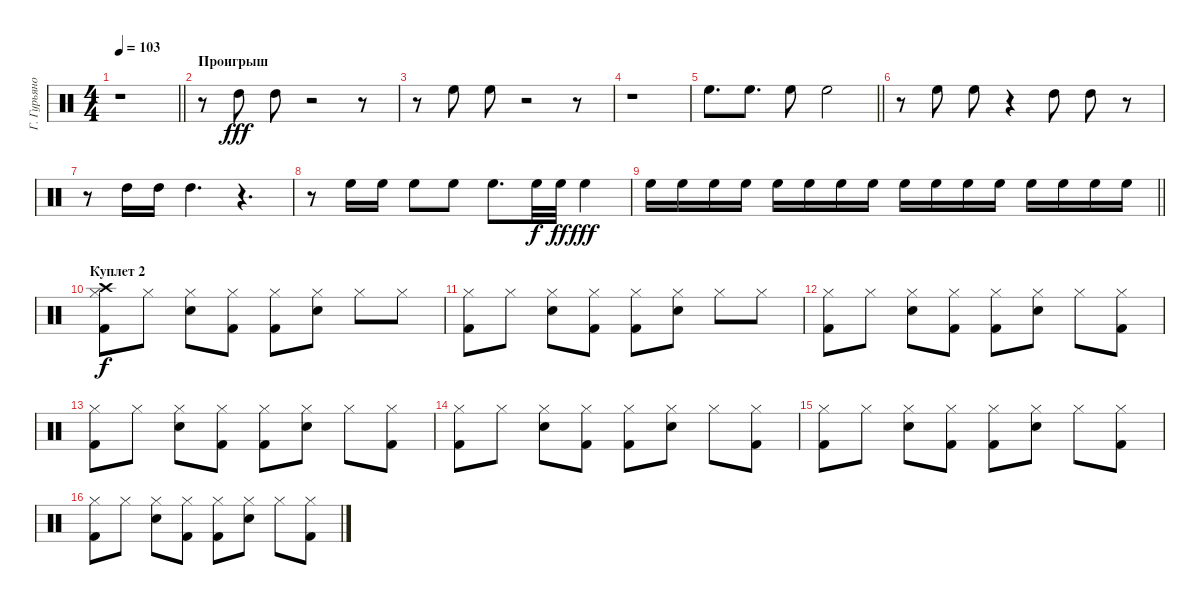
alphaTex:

\track ("Г. Гурьянов" "Г. Гурьяно") {instrument percussion}
\staff
\articulation defaults
\ts (4 4)
\tempo 103
\clef neutral
\barLineRight lightlight
\ks c
r.1{dy f} |
\section ("" "Проигрыш")
r.8 "High Tom (hit)".8{dy fff balance 15} "High Tom (hit)".8{balance 1} r.2 r.8 |
r.8 "High Floor Tom (hit)".8{balance 1} "High Floor Tom (hit)".8{balance 15} r.2 r.8 |
r.1 |
\barLineRight lightlight "High Floor Tom (hit)".8{d balance 15} "High Floor Tom (hit)".8{d balance 1} "High Floor Tom (hit)".8{balance 15} "High Floor Tom (hit)".2{balance 1}
|
r.8 "High Floor Tom (hit)".8{balance 1} "High Floor Tom (hit)".8{balance 15} r.4 "High Tom (hit)".8{balance 15} "High Tom (hit)".8{balance 1} r.8 |
r.8 "High Tom (hit)".16{balance 1} "High Tom (hit)".16 "High Tom (hit)".4{d balance 15} r.4{d} |
r.8 "High Floor Tom (hit)".16 "High Floor Tom (hit)".16 "High Floor Tom (hit)".8 "High Floor Tom (hit)".8 "High Floor Tom (hit)".8{d} "High Floor Tom (hit)".32{dy f} "High Floor Tom (hit)".32{dy ff} "High Floor Tom (hit)".4{dy fff} |
\barLineRight lightlight "High Floor Tom (hit)".16{balance 1} "High Floor Tom (hit)".16 "High Floor Tom (hit)".16 "High Floor Tom (hit)".16 "High Floor Tom (hit)".16{balance 14} "High Floor Tom (hit)".16 "High Floor Tom (hit)".16 "High Floor Tom (hit)".16 "High Floor Tom (hit)".16{balance 1} "High Floor Tom (hit)".16 "High Floor Tom (hit)".16 "High Floor Tom (hit)".16 "High Floor Tom (hit)".16{balance 14} "High Floor Tom (hit)".16 "High Floor Tom (hit)".16 "High Floor Tom (hit)".16
|
\section ("" "Куплет 2")
("Hi-Hat (closed)" "Crash high (hit)" "Kick (hit) 2").8{dy f balance 8} "Hi-Hat (closed)".8 ("Hi-Hat (closed)" "Snare (hit) 2").8 ("Hi-Hat (closed)" "Kick (hit) 2").8 ("Hi-Hat (closed)" "Kick (hit) 2").8 ("Hi-Hat (closed)" "Snare (hit) 2").8 "Hi-Hat (closed)".8 "Hi-Hat (closed)".8 |
("Hi-Hat (closed)" "Kick (hit) 2").8 "Hi-Hat (closed)".8 ("Hi-Hat (closed)" "Snare (hit) 2").8 ("Hi-Hat (closed)" "Kick (hit) 2").8 ("Hi-Hat (closed)" "Kick (hit) 2").8 ("Hi-Hat (closed)" "Snare (hit) 2").8 "Hi-Hat (closed)".8 "Hi-Hat (closed)".8 |
("Hi-Hat (closed)" "Kick (hit) 2").8 "Hi-Hat (closed)".8 ("Hi-Hat (closed)" "Snare (hit) 2").8 ("Hi-Hat (closed)" "Kick (hit) 2").8 ("Hi-Hat (closed)" "Kick (hit) 2").8 ("Hi-Hat (closed)" "Snare (hit) 2").8 "Hi-Hat (closed)".8 ("Hi-Hat (closed)" "Kick (hit) 2").8 |
("Hi-Hat (closed)" "Kick (hit) 2").8 "Hi-Hat (closed)".8 ("Hi-Hat (closed)" "Snare (hit) 2").8 ("Hi-Hat (closed)" "Kick (hit) 2").8 ("Hi-Hat (closed)" "Kick (hit) 2").8 ("Hi-Hat (closed)" "Snare (hit) 2").8 "Hi-Hat (closed)".8 ("Hi-Hat (closed)" "Kick (hit) 2").8 |
("Hi-Hat (closed)" "Kick (hit) 2").8 "Hi-Hat (closed)".8 ("Hi-Hat (closed)" "Snare (hit) 2").8 ("Hi-Hat (closed)" "Kick (hit) 2").8 ("Hi-Hat (closed)" "Kick (hit) 2").8 ("Hi-Hat (closed)" "Snare (hit) 2").8 "Hi-Hat (closed)".8 ("Hi-Hat (closed)" "Kick (hit) 2").8 |
("Hi-Hat (closed)" "Kick (hit) 2").8 "Hi-Hat (closed)".8 ("Hi-Hat (closed)" "Snare (hit) 2").8 ("Hi-Hat (closed)" "Kick (hit) 2").8 ("Hi-Hat (closed)" "Kick (hit) 2").8 ("Hi-Hat (closed)" "Snare (hit) 2").8 "Hi-Hat (closed)".8 ("Hi-Hat (closed)" "Kick (hit) 2").8 |
("Hi-Hat (closed)" "Kick (hit) 2").8 "Hi-Hat (closed)".8 ("Hi-Hat (closed)" "Snare (hit) 2").8 ("Hi-Hat (closed)" "Kick (hit) 2").8 ("Hi-Hat (closed)" "Kick (hit) 2").8 ("Hi-Hat (closed)" "Snare (hit) 2").8 "Hi-Hat (closed)".8 ("Hi-Hat (closed)" "Kick (hit) 2").8
